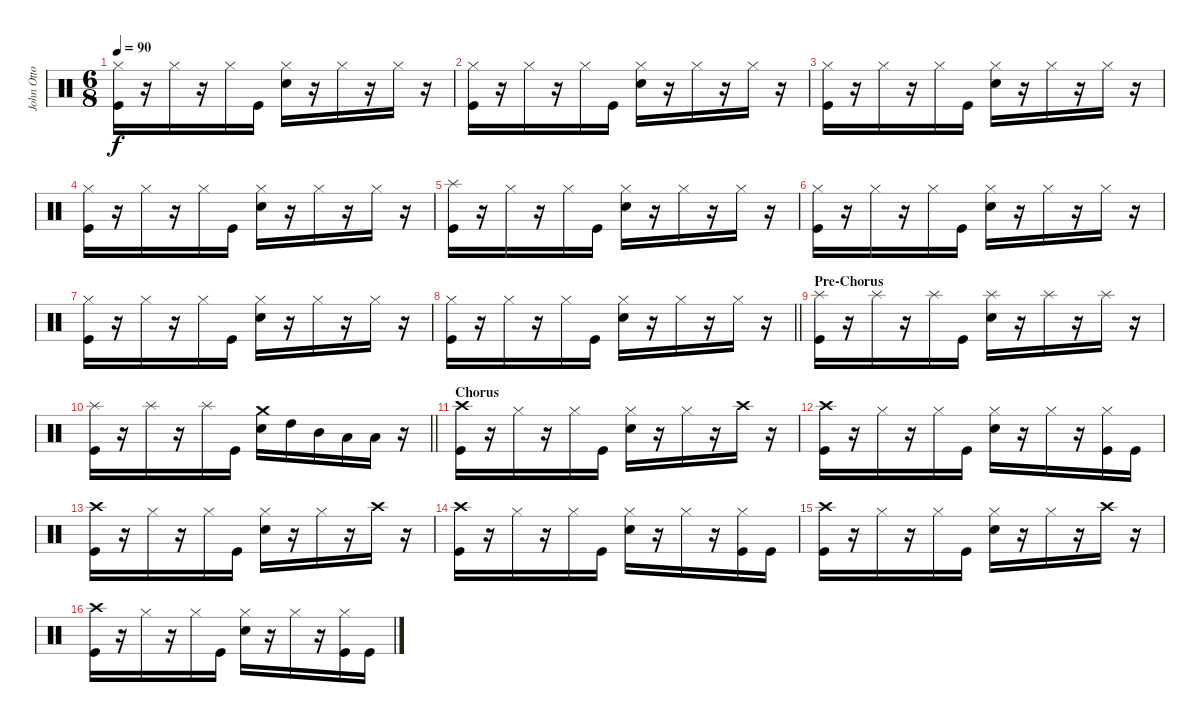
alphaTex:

\track ("John Otto" "John Otto") {instrument percussion}
\staff {score}
\articulation defaults
\ts (6 8)
\tempo 90
\clef neutral
\ks c
("Hi-Hat (closed)" "Kick (hit)").16{dy f} r.16 "Hi-Hat (closed)".16 r.16 "Hi-Hat (closed)".16 "Kick (hit)".16 ("Hi-Hat (closed)" "Electric Snare (hit)").16 r.16 "Hi-Hat (closed)".16 r.16 "Hi-Hat (closed)".16 r.16 |
("Hi-Hat (closed)" "Kick (hit)").16 r.16 "Hi-Hat (closed)".16 r.16 "Hi-Hat (closed)".16 "Kick (hit)".16 ("Hi-Hat (closed)" "Electric Snare (hit)").16 r.16 "Hi-Hat (closed)".16 r.16 "Hi-Hat (closed)".16 r.16 |
("Hi-Hat (closed)" "Kick (hit)").16 r.16 "Hi-Hat (closed)".16 r.16 "Hi-Hat (closed)".16 "Kick (hit)".16 ("Hi-Hat (closed)" "Electric Snare (hit)").16 r.16 "Hi-Hat (closed)".16 r.16 "Hi-Hat (closed)".16 r.16 |
("Hi-Hat (closed)" "Kick (hit)").16 r.16 "Hi-Hat (closed)".16 r.16 "Hi-Hat (closed)".16 "Kick (hit)".16 ("Hi-Hat (closed)" "Electric Snare (hit)").16 r.16 "Hi-Hat (closed)".16 r.16 "Hi-Hat (closed)".16 r.16 |
("Splash (hit)" "Kick (hit)").16 r.16 "Hi-Hat (closed)".16 r.16 "Hi-Hat (closed)".16 "Kick (hit)".16 ("Hi-Hat (closed)" "Electric Snare (hit)").16 r.16 "Hi-Hat (closed)".16 r.16 "Hi-Hat (closed)".16 r.16 |
("Hi-Hat (closed)" "Kick (hit)").16 r.16 "Hi-Hat (closed)".16 r.16 "Hi-Hat (closed)".16 "Kick (hit)".16 ("Hi-Hat (closed)" "Electric Snare (hit)").16 r.16 "Hi-Hat (closed)".16 r.16 "Hi-Hat (closed)".16 r.16 |
("Hi-Hat (closed)" "Kick (hit)").16 r.16 "Hi-Hat (closed)".16 r.16 "Hi-Hat (closed)".16 "Kick (hit)".16 ("Hi-Hat (closed)" "Electric Snare (hit)").16 r.16 "Hi-Hat (closed)".16 r.16 "Hi-Hat (closed)".16 r.16 |
\barLineRight lightlight
("Hi-Hat (closed)" "Kick (hit)").16 r.16 "Hi-Hat (closed)".16 r.16 "Hi-Hat (closed)".16 "Kick (hit)".16 ("Hi-Hat (closed)" "Electric Snare (hit)").16 r.16 "Hi-Hat (closed)".16 r.16 "Hi-Hat (closed)".16 r.16 |
\section ("" "Pre-Chorus")
("Splash (hit)" "Kick (hit)").16 r.16 "Splash (hit)".16 r.16 "Splash (hit)".16 "Kick (hit)".16 ("Splash (hit)" "Electric Snare (hit)").16 r.16 "Splash (hit)".16 r.16 "Splash (hit)".16 r.16 |
\barLineRight lightlight
("Splash (hit)" "Kick (hit)").16 r.16 "Splash (hit)".16 r.16 "Splash (hit)".16 "Kick (hit)".16 ("Crash medium (hit)" "Electric Snare (hit)").16 "High Tom (hit)".16 "Mid Tom (hit)".16 "Low Tom (hit)".16 "Low Floor Tom (hit)".16 r.16 |
\section ("" "Chorus")
("Crash high (hit)" "Kick (hit)").16 r.16 "Hi-Hat (closed)".16 r.16 "Hi-Hat (closed)".16 "Kick (hit)".16 ("Hi-Hat (closed)" "Electric Snare (hit)").16 r.16 "Hi-Hat (closed)".16 r.16 "Crash high (hit)".16 r.16 |
("Crash high (hit)" "Kick (hit)").16 r.16 "Hi-Hat (closed)".16 r.16 "Hi-Hat (closed)".16 "Kick (hit)".16 ("Hi-Hat (closed)" "Electric Snare (hit)").16 r.16 "Hi-Hat (closed)".16 r.16 ("Hi-Hat (closed)" "Kick (hit)").16 "Kick (hit)".16 |
("Crash high (hit)" "Kick (hit)").16 r.16 "Hi-Hat (closed)".16 r.16 "Hi-Hat (closed)".16 "Kick (hit)".16 ("Hi-Hat (closed)" "Electric Snare (hit)").16 r.16 "Hi-Hat (closed)".16 r.16 "Crash high (hit)".16 r.16 |
("Crash high (hit)" "Kick (hit)").16 r.16 "Hi-Hat (closed)".16 r.16 "Hi-Hat (closed)".16 "Kick (hit)".16 ("Hi-Hat (closed)" "Electric Snare (hit)").16 r.16 "Hi-Hat (closed)".16 r.16 ("Hi-Hat (closed)" "Kick (hit)").16 "Kick (hit)".16 |
("Crash high (hit)" "Kick (hit)").16 r.16 "Hi-Hat (closed)".16 r.16 "Hi-Hat (closed)".16 "Kick (hit)".16 ("Hi-Hat (closed)" "Electric Snare (hit)").16 r.16 "Hi-Hat (closed)".16 r.16 "Crash high (hit)".16 r.16 |
("Crash high (hit)" "Kick (hit)").16 r.16 "Hi-Hat (closed)".16 r.16 "Hi-Hat (closed)".16 "Kick (hit)".16 ("Hi-Hat (closed)" "Electric Snare (hit)").16 r.16 "Hi-Hat (closed)".16 r.16 ("Hi-Hat (closed)" "Kick (hit)").16 "Kick (hit)".16
